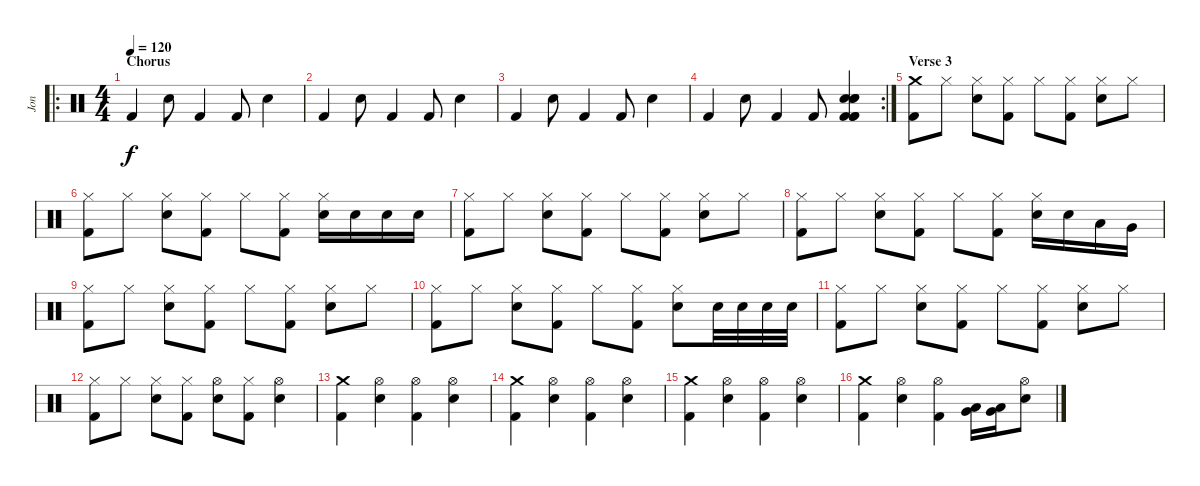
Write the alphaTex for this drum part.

\track ("Jon" "Jon") {instrument percussion}
\staff {score}
\articulation defaults
\ro
\ts (4 4)
\section ("" "Chorus")
\tempo 120
\clef neutral
\ks c "Kick (hit) 2".4{dy f} "Snare (hit) 2".8 "Kick (hit) 2".4 "Kick (hit) 2".8 "Snare (hit) 2".4
|
"Kick (hit) 2".4 "Snare (hit) 2".8 "Kick (hit) 2".4 "Kick (hit) 2".8 "Snare (hit) 2".4 |
"Kick (hit) 2".4 "Snare (hit) 2".8 "Kick (hit) 2".4 "Kick (hit) 2".8 "Snare (hit) 2".4 |
\rc 2 "Kick (hit) 2".4 "Snare (hit) 2".8 "Kick (hit) 2".4 "Kick (hit) 2".8
("Snare (hit) 2" "Electric Snare (hit)" "Snare (hit) 2" "Kick (hit) 2" "Kick (hit) 2" "Kick (hit) 2").4 |
\section ("" "Verse 3")
("Crash medium (hit)" "Kick (hit) 2").8 "Hi-Hat (closed)".8 ("Hi-Hat (closed)" "Snare (hit) 2").8 ("Hi-Hat (closed)" "Kick (hit) 2").8 "Hi-Hat (closed)".8 ("Hi-Hat (closed)" "Kick (hit) 2").8 ("Hi-Hat (closed)" "Snare (hit) 2").8 "Hi-Hat (closed)".8 |
("Hi-Hat (closed)" "Kick (hit) 2").8 "Hi-Hat (closed)".8 ("Hi-Hat (closed)" "Snare (hit) 2").8 ("Hi-Hat (closed)" "Kick (hit) 2").8 "Hi-Hat (closed)".8 ("Hi-Hat (closed)" "Kick (hit) 2").8 ("Hi-Hat (closed)" "Snare (hit) 2").16 "Snare (hit) 2".16 "Snare (hit) 2".16 "Snare (hit) 2".16 |
("Hi-Hat (closed)" "Kick (hit) 2").8 "Hi-Hat (closed)".8 ("Hi-Hat (closed)" "Snare (hit) 2").8 ("Hi-Hat (closed)" "Kick (hit) 2").8 "Hi-Hat (closed)".8 ("Hi-Hat (closed)" "Kick (hit) 2").8 ("Hi-Hat (closed)" "Snare (hit) 2").8 "Hi-Hat (closed)".8 |
("Hi-Hat (closed)" "Kick (hit) 2").8 "Hi-Hat (closed)".8 ("Hi-Hat (closed)" "Snare (hit) 2").8 ("Hi-Hat (closed)" "Kick (hit) 2").8 "Hi-Hat (closed)".8 ("Hi-Hat (closed)" "Kick (hit) 2").8 ("Hi-Hat (closed)" "Snare (hit) 2").16 "Snare (hit) 2".16 "Low Tom (hit)".16 "Very Low Tom (hit)".16 |
("Hi-Hat (closed)" "Kick (hit) 2").8 "Hi-Hat (closed)".8 ("Hi-Hat (closed)" "Snare (hit) 2").8 ("Hi-Hat (closed)" "Kick (hit) 2").8 "Hi-Hat (closed)".8 ("Hi-Hat (closed)" "Kick (hit) 2").8 ("Hi-Hat (closed)" "Snare (hit) 2").8 "Hi-Hat (closed)".8 |
("Hi-Hat (closed)" "Kick (hit) 2").8 "Hi-Hat (closed)".8 ("Hi-Hat (closed)" "Snare (hit) 2").8 ("Hi-Hat (closed)" "Kick (hit) 2").8 "Hi-Hat (closed)".8 ("Hi-Hat (closed)" "Kick (hit) 2").8 ("Hi-Hat (closed)" "Snare (hit) 2").8 "Snare (hit) 2".32 "Snare (hit) 2".32 "Snare (hit) 2".32 "Snare (hit) 2".32 |
("Hi-Hat (closed)" "Kick (hit) 2").8 "Hi-Hat (closed)".8 ("Hi-Hat (closed)" "Snare (hit) 2").8 ("Hi-Hat (closed)" "Kick (hit) 2").8 "Hi-Hat (closed)".8 ("Hi-Hat (closed)" "Kick (hit) 2").8 ("Hi-Hat (closed)" "Snare (hit) 2").8 "Hi-Hat (closed)".8 |
("Hi-Hat (closed)" "Kick (hit) 2").8 "Hi-Hat (closed)".8 ("Hi-Hat (closed)" "Snare (hit) 2").8 ("Hi-Hat (closed)" "Kick (hit) 2").8 ("Hi-Hat (open)" "Snare (hit) 2").8 ("Hi-Hat (closed)" "Kick (hit) 2").8 ("Hi-Hat (open)" "Snare (hit) 2").4 |
("Crash medium (hit)" "Kick (hit) 2").4 ("Hi-Hat (open)" "Snare (hit) 2").4 ("Hi-Hat (open)" "Kick (hit) 2").4 ("Hi-Hat (open)" "Snare (hit) 2").4 |
("Crash medium (hit)" "Kick (hit) 2").4 ("Hi-Hat (open)" "Snare (hit) 2").4 ("Hi-Hat (open)" "Kick (hit) 2").4 ("Hi-Hat (open)" "Snare (hit) 2").4 |
("Crash medium (hit)" "Kick (hit) 2").4 ("Hi-Hat (open)" "Snare (hit) 2").4 ("Hi-Hat (open)" "Kick (hit) 2").4 ("Hi-Hat (open)" "Snare (hit) 2").4 |
("Crash medium (hit)" "Kick (hit) 2").4 ("Hi-Hat (open)" "Snare (hit) 2").4 ("Hi-Hat (open)" "Kick (hit) 2").4 ("Low Tom (hit)" "Very Low Tom (hit)").16 ("Very Low Tom (hit)" "Low Floor Tom (hit)").16 ("Hi-Hat (open)" "Snare (hit) 2").8
